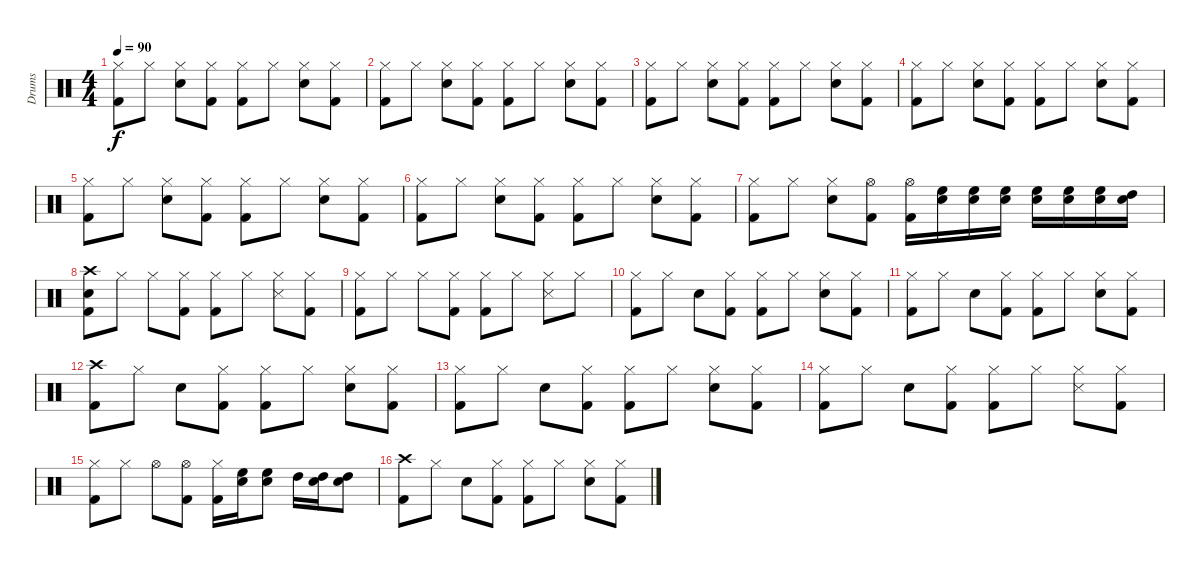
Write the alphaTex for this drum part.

\track ("Drums" "Drums") {instrument percussion}
\staff {score}
\articulation defaults
\ts (4 4)
\tempo 90
\clef neutral
\ks c
("Hi-Hat (closed)" "Kick (hit) 2").8{dy f} "Hi-Hat (closed)".8 ("Snare (hit) 2" "Hi-Hat (closed)").8 ("Hi-Hat (closed)" "Kick (hit) 2").8 ("Hi-Hat (closed)" "Kick (hit) 2").8 "Hi-Hat (closed)".8 ("Snare (hit) 2" "Hi-Hat (closed)").8 ("Hi-Hat (closed)" "Kick (hit) 2").8 |
("Hi-Hat (closed)" "Kick (hit) 2").8 "Hi-Hat (closed)".8 ("Snare (hit) 2" "Hi-Hat (closed)").8 ("Hi-Hat (closed)" "Kick (hit) 2").8 ("Hi-Hat (closed)" "Kick (hit) 2").8 "Hi-Hat (closed)".8 ("Snare (hit) 2" "Hi-Hat (closed)").8 ("Hi-Hat (closed)" "Kick (hit) 2").8 |
("Hi-Hat (closed)" "Kick (hit) 2").8 "Hi-Hat (closed)".8 ("Snare (hit) 2" "Hi-Hat (closed)").8 ("Hi-Hat (closed)" "Kick (hit) 2").8 ("Hi-Hat (closed)" "Kick (hit) 2").8 "Hi-Hat (closed)".8 ("Snare (hit) 2" "Hi-Hat (closed)").8 ("Hi-Hat (closed)" "Kick (hit) 2").8 |
("Hi-Hat (closed)" "Kick (hit) 2").8 "Hi-Hat (closed)".8 ("Snare (hit) 2" "Hi-Hat (closed)").8 ("Hi-Hat (closed)" "Kick (hit) 2").8 ("Hi-Hat (closed)" "Kick (hit) 2").8 "Hi-Hat (closed)".8 ("Snare (hit) 2" "Hi-Hat (closed)").8 ("Hi-Hat (closed)" "Kick (hit) 2").8 |
("Hi-Hat (closed)" "Kick (hit) 2").8 "Hi-Hat (closed)".8 ("Snare (hit) 2" "Hi-Hat (closed)").8 ("Hi-Hat (closed)" "Kick (hit) 2").8 ("Hi-Hat (closed)" "Kick (hit) 2").8 "Hi-Hat (closed)".8 ("Snare (hit) 2" "Hi-Hat (closed)").8 ("Hi-Hat (closed)" "Kick (hit) 2").8 |
("Hi-Hat (closed)" "Kick (hit) 2").8 "Hi-Hat (closed)".8 ("Snare (hit) 2" "Hi-Hat (closed)").8 ("Hi-Hat (closed)" "Kick (hit) 2").8 ("Hi-Hat (closed)" "Kick (hit) 2").8 "Hi-Hat (closed)".8 ("Snare (hit) 2" "Hi-Hat (closed)").8 ("Hi-Hat (closed)" "Kick (hit) 2").8 |
("Hi-Hat (closed)" "Kick (hit) 2").8 "Hi-Hat (closed)".8 ("Snare (hit) 2" "Hi-Hat (closed)").8 ("Hi-Hat (open)" "Kick (hit) 2").8 ("Hi-Hat (open)" "Kick (hit) 2").16 ("Snare (hit)" "High Floor Tom (hit)").16 ("Snare (hit)" "High Floor Tom (hit)").16 ("Snare (hit)" "High Floor Tom (hit)").16 ("Snare (hit)" "High Floor Tom (hit)").16 ("Snare (hit)" "High Floor Tom (hit)").16 ("Snare (hit)" "High Floor Tom (hit)").16 ("Snare (hit)" "High Tom (hit)").16 |
("Snare (hit)" "Crash high (hit)" "Kick (hit) 2").8 "Hi-Hat (closed)".8 "Hi-Hat (closed)".8 ("Hi-Hat (closed)" "Kick (hit) 2").8 ("Hi-Hat (closed)" "Kick (hit) 2").8 "Hi-Hat (closed)".8 ("Snare (side stick) 3" "Hi-Hat (closed)").8 ("Hi-Hat (closed)" "Kick (hit) 2").8 |
("Hi-Hat (closed)" "Kick (hit) 2").8 "Hi-Hat (closed)".8 "Hi-Hat (closed)".8 ("Hi-Hat (closed)" "Kick (hit) 2").8 ("Hi-Hat (closed)" "Kick (hit) 2").8 "Hi-Hat (closed)".8 ("Snare (side stick) 3" "Hi-Hat (closed)").8 "Hi-Hat (closed)".8 |
("Hi-Hat (closed)" "Kick (hit) 2").8 "Hi-Hat (closed)".8 "Snare (hit) 2".8 ("Hi-Hat (closed)" "Kick (hit) 2").8 ("Hi-Hat (closed)" "Kick (hit) 2").8 "Hi-Hat (closed)".8 ("Snare (hit) 2" "Hi-Hat (closed)").8 ("Hi-Hat (closed)" "Kick (hit) 2").8 |
("Hi-Hat (closed)" "Kick (hit) 2").8 "Hi-Hat (closed)".8 "Snare (hit) 2".8 ("Hi-Hat (closed)" "Kick (hit) 2").8 ("Hi-Hat (closed)" "Kick (hit) 2").8 "Hi-Hat (closed)".8 ("Snare (hit) 2" "Hi-Hat (closed)").8 ("Hi-Hat (closed)" "Kick (hit) 2").8 |
("Crash high (hit)" "Kick (hit) 2").8 "Hi-Hat (closed)".8 "Snare (hit) 2".8 ("Hi-Hat (closed)" "Kick (hit) 2").8 ("Hi-Hat (closed)" "Kick (hit) 2").8 "Hi-Hat (closed)".8 ("Snare (hit) 2" "Hi-Hat (closed)").8 ("Hi-Hat (closed)" "Kick (hit) 2").8 |
("Hi-Hat (closed)" "Kick (hit) 2").8 "Hi-Hat (closed)".8 "Snare (hit) 2".8 ("Hi-Hat (closed)" "Kick (hit) 2").8 ("Hi-Hat (closed)" "Kick (hit) 2").8 "Hi-Hat (closed)".8 ("Snare (hit) 2" "Hi-Hat (closed)").8 ("Hi-Hat (closed)" "Kick (hit) 2").8 |
("Hi-Hat (closed)" "Kick (hit) 2").8 "Hi-Hat (closed)".8 "Snare (hit) 2".8 ("Hi-Hat (closed)" "Kick (hit) 2").8 ("Hi-Hat (closed)" "Kick (hit) 2").8 "Hi-Hat (closed)".8 ("Snare (side stick) 3" "Hi-Hat (closed)").8 ("Hi-Hat (closed)" "Kick (hit) 2").8 |
("Hi-Hat (closed)" "Kick (hit) 2").8 "Hi-Hat (closed)".8 "Hi-Hat (open)".8 ("Hi-Hat (open)" "Kick (hit) 2").8 ("Hi-Hat (closed)" "Kick (hit) 2").16 ("Snare (hit)" "High Floor Tom (hit)").16 ("Snare (hit)" "High Floor Tom (hit)").8 "High Tom (hit)".16 ("Snare (hit)" "High Tom (hit)").16 ("Snare (hit)" "High Tom (hit)").8 |
("Crash high (hit)" "Kick (hit) 2").8 "Hi-Hat (closed)".8 "Snare (hit) 2".8 ("Hi-Hat (closed)" "Kick (hit) 2").8 ("Hi-Hat (closed)" "Kick (hit) 2").8 "Hi-Hat (closed)".8 ("Snare (hit) 2" "Hi-Hat (closed)").8 ("Hi-Hat (closed)" "Kick (hit) 2").8
